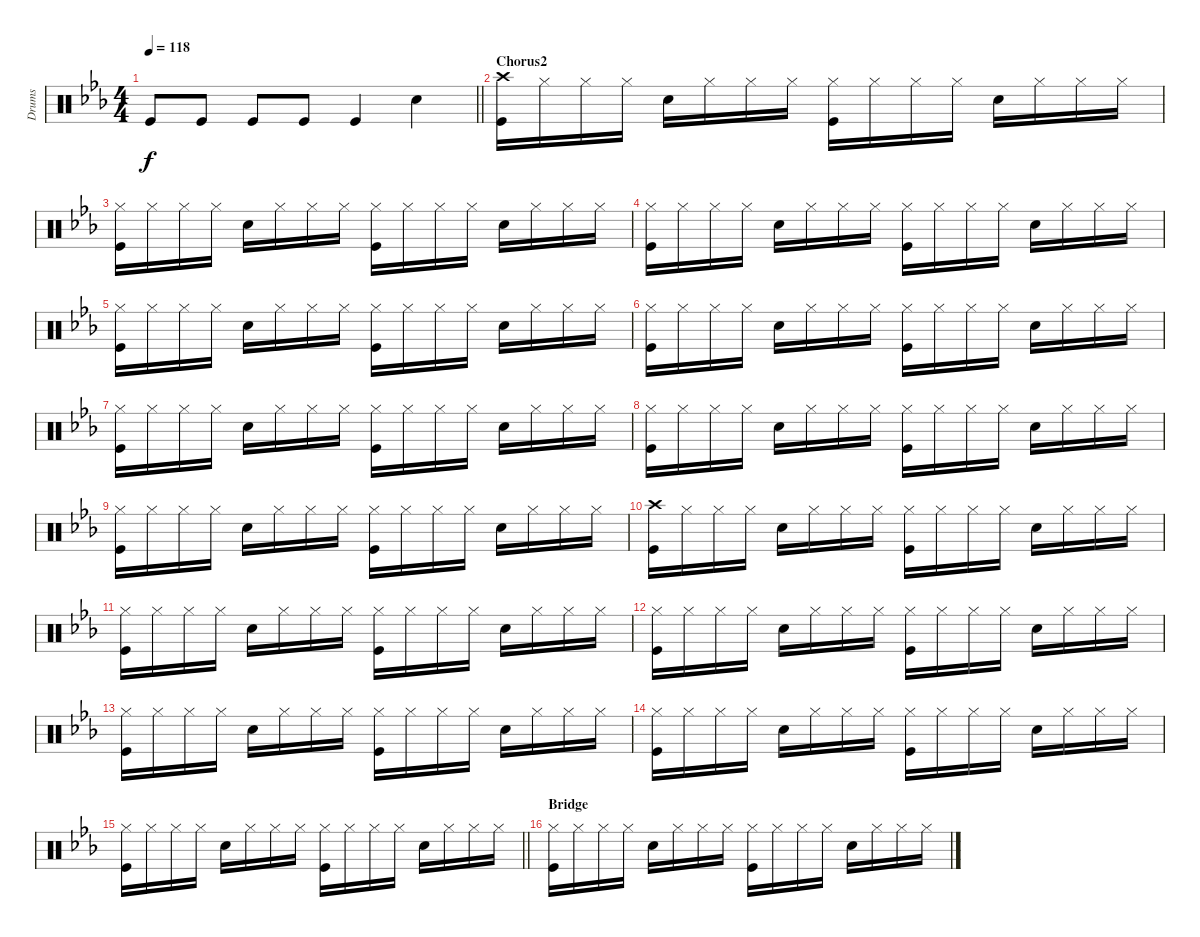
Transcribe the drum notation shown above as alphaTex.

\track ("Drums" "Drums") {instrument percussion}
\staff {score}
\articulation defaults
\ts (4 4)
\tempo 118
\clef neutral
\barLineRight lightlight
\ks eb "Kick (hit)"{t}.8{dy f} "Kick (hit)".8 "Kick (hit)".8 "Kick (hit)".8 "Kick (hit)".4 "Snare (hit) 2".4
|
\section ("" "Chorus2")
("Crash high (hit)" "Kick (hit)").16 "Hi-Hat (closed)".16 "Hi-Hat (closed)".16 "Hi-Hat (closed)".16 "Snare (hit) 2".16 "Hi-Hat (closed)".16 "Hi-Hat (closed)".16 "Hi-Hat (closed)".16 ("Hi-Hat (closed)" "Kick (hit)").16 "Hi-Hat (closed)".16 "Hi-Hat (closed)".16 "Hi-Hat (closed)".16 "Snare (hit) 2".16 "Hi-Hat (closed)".16 "Hi-Hat (closed)".16 "Hi-Hat (closed)".16 |
("Kick (hit)" "Hi-Hat (closed)").16 "Hi-Hat (closed)".16 "Hi-Hat (closed)".16 "Hi-Hat (closed)".16 "Snare (hit) 2".16 "Hi-Hat (closed)".16 "Hi-Hat (closed)".16 "Hi-Hat (closed)".16 ("Hi-Hat (closed)" "Kick (hit)").16 "Hi-Hat (closed)".16 "Hi-Hat (closed)".16 "Hi-Hat (closed)".16 "Snare (hit) 2".16 "Hi-Hat (closed)".16 "Hi-Hat (closed)".16 "Hi-Hat (closed)".16 |
("Kick (hit)" "Hi-Hat (closed)").16 "Hi-Hat (closed)".16 "Hi-Hat (closed)".16 "Hi-Hat (closed)".16 "Snare (hit) 2".16 "Hi-Hat (closed)".16 "Hi-Hat (closed)".16 "Hi-Hat (closed)".16 ("Hi-Hat (closed)" "Kick (hit)").16 "Hi-Hat (closed)".16 "Hi-Hat (closed)".16 "Hi-Hat (closed)".16 "Snare (hit) 2".16 "Hi-Hat (closed)".16 "Hi-Hat (closed)".16 "Hi-Hat (closed)".16 |
("Kick (hit)" "Hi-Hat (closed)").16 "Hi-Hat (closed)".16 "Hi-Hat (closed)".16 "Hi-Hat (closed)".16 "Snare (hit) 2".16 "Hi-Hat (closed)".16 "Hi-Hat (closed)".16 "Hi-Hat (closed)".16 ("Hi-Hat (closed)" "Kick (hit)").16 "Hi-Hat (closed)".16 "Hi-Hat (closed)".16 "Hi-Hat (closed)".16 "Snare (hit) 2".16 "Hi-Hat (closed)".16 "Hi-Hat (closed)".16 "Hi-Hat (closed)".16 |
("Kick (hit)" "Hi-Hat (closed)").16 "Hi-Hat (closed)".16 "Hi-Hat (closed)".16 "Hi-Hat (closed)".16 "Snare (hit) 2".16 "Hi-Hat (closed)".16 "Hi-Hat (closed)".16 "Hi-Hat (closed)".16 ("Hi-Hat (closed)" "Kick (hit)").16 "Hi-Hat (closed)".16 "Hi-Hat (closed)".16 "Hi-Hat (closed)".16 "Snare (hit) 2".16 "Hi-Hat (closed)".16 "Hi-Hat (closed)".16 "Hi-Hat (closed)".16 |
("Kick (hit)" "Hi-Hat (closed)").16 "Hi-Hat (closed)".16 "Hi-Hat (closed)".16 "Hi-Hat (closed)".16 "Snare (hit) 2".16 "Hi-Hat (closed)".16 "Hi-Hat (closed)".16 "Hi-Hat (closed)".16 ("Hi-Hat (closed)" "Kick (hit)").16 "Hi-Hat (closed)".16 "Hi-Hat (closed)".16 "Hi-Hat (closed)".16 "Snare (hit) 2".16 "Hi-Hat (closed)".16 "Hi-Hat (closed)".16 "Hi-Hat (closed)".16 |
("Kick (hit)" "Hi-Hat (closed)").16 "Hi-Hat (closed)".16 "Hi-Hat (closed)".16 "Hi-Hat (closed)".16 "Snare (hit) 2".16 "Hi-Hat (closed)".16 "Hi-Hat (closed)".16 "Hi-Hat (closed)".16 ("Hi-Hat (closed)" "Kick (hit)").16 "Hi-Hat (closed)".16 "Hi-Hat (closed)".16 "Hi-Hat (closed)".16 "Snare (hit) 2".16 "Hi-Hat (closed)".16 "Hi-Hat (closed)".16 "Hi-Hat (closed)".16 |
("Kick (hit)" "Hi-Hat (closed)").16 "Hi-Hat (closed)".16 "Hi-Hat (closed)".16 "Hi-Hat (closed)".16 "Snare (hit) 2".16 "Hi-Hat (closed)".16 "Hi-Hat (closed)".16 "Hi-Hat (closed)".16 ("Hi-Hat (closed)" "Kick (hit)").16 "Hi-Hat (closed)".16 "Hi-Hat (closed)".16 "Hi-Hat (closed)".16 "Snare (hit) 2".16 "Hi-Hat (closed)".16 "Hi-Hat (closed)".16 "Hi-Hat (closed)".16 |
("Crash high (hit)" "Kick (hit)").16 "Hi-Hat (closed)".16 "Hi-Hat (closed)".16 "Hi-Hat (closed)".16 "Snare (hit) 2".16 "Hi-Hat (closed)".16 "Hi-Hat (closed)".16 "Hi-Hat (closed)".16 ("Hi-Hat (closed)" "Kick (hit)").16 "Hi-Hat (closed)".16 "Hi-Hat (closed)".16 "Hi-Hat (closed)".16 "Snare (hit) 2".16 "Hi-Hat (closed)".16 "Hi-Hat (closed)".16 "Hi-Hat (closed)".16 |
("Kick (hit)" "Hi-Hat (closed)").16 "Hi-Hat (closed)".16 "Hi-Hat (closed)".16 "Hi-Hat (closed)".16 "Snare (hit) 2".16 "Hi-Hat (closed)".16 "Hi-Hat (closed)".16 "Hi-Hat (closed)".16 ("Hi-Hat (closed)" "Kick (hit)").16 "Hi-Hat (closed)".16 "Hi-Hat (closed)".16 "Hi-Hat (closed)".16 "Snare (hit) 2".16 "Hi-Hat (closed)".16 "Hi-Hat (closed)".16 "Hi-Hat (closed)".16 |
("Kick (hit)" "Hi-Hat (closed)").16 "Hi-Hat (closed)".16 "Hi-Hat (closed)".16 "Hi-Hat (closed)".16 "Snare (hit) 2".16 "Hi-Hat (closed)".16 "Hi-Hat (closed)".16 "Hi-Hat (closed)".16 ("Hi-Hat (closed)" "Kick (hit)").16 "Hi-Hat (closed)".16 "Hi-Hat (closed)".16 "Hi-Hat (closed)".16 "Snare (hit) 2".16 "Hi-Hat (closed)".16 "Hi-Hat (closed)".16 "Hi-Hat (closed)".16 |
("Kick (hit)" "Hi-Hat (closed)").16 "Hi-Hat (closed)".16 "Hi-Hat (closed)".16 "Hi-Hat (closed)".16 "Snare (hit) 2".16 "Hi-Hat (closed)".16 "Hi-Hat (closed)".16 "Hi-Hat (closed)".16 ("Hi-Hat (closed)" "Kick (hit)").16 "Hi-Hat (closed)".16 "Hi-Hat (closed)".16 "Hi-Hat (closed)".16 "Snare (hit) 2".16 "Hi-Hat (closed)".16 "Hi-Hat (closed)".16 "Hi-Hat (closed)".16 |
("Kick (hit)" "Hi-Hat (closed)").16 "Hi-Hat (closed)".16 "Hi-Hat (closed)".16 "Hi-Hat (closed)".16 "Snare (hit) 2".16 "Hi-Hat (closed)".16 "Hi-Hat (closed)".16 "Hi-Hat (closed)".16 ("Hi-Hat (closed)" "Kick (hit)").16 "Hi-Hat (closed)".16 "Hi-Hat (closed)".16 "Hi-Hat (closed)".16 "Snare (hit) 2".16 "Hi-Hat (closed)".16 "Hi-Hat (closed)".16 "Hi-Hat (closed)".16 |
\barLineRight lightlight
("Kick (hit)" "Hi-Hat (closed)").16 "Hi-Hat (closed)".16 "Hi-Hat (closed)".16 "Hi-Hat (closed)".16 "Snare (hit) 2".16 "Hi-Hat (closed)".16 "Hi-Hat (closed)".16 "Hi-Hat (closed)".16 ("Hi-Hat (closed)" "Kick (hit)").16 "Hi-Hat (closed)".16 "Hi-Hat (closed)".16 "Hi-Hat (closed)".16 "Snare (hit) 2".16 "Hi-Hat (closed)".16 "Hi-Hat (closed)".16 "Hi-Hat (closed)".16 |
\section ("" "Bridge")
("Kick (hit)" "Hi-Hat (closed)").16 "Hi-Hat (closed)".16 "Hi-Hat (closed)".16 "Hi-Hat (closed)".16 "Snare (hit) 2".16 "Hi-Hat (closed)".16 "Hi-Hat (closed)".16 "Hi-Hat (closed)".16 ("Hi-Hat (closed)" "Kick (hit)").16 "Hi-Hat (closed)".16 "Hi-Hat (closed)".16 "Hi-Hat (closed)".16 "Snare (hit) 2".16 "Hi-Hat (closed)".16 "Hi-Hat (closed)".16 "Hi-Hat (closed)".16
